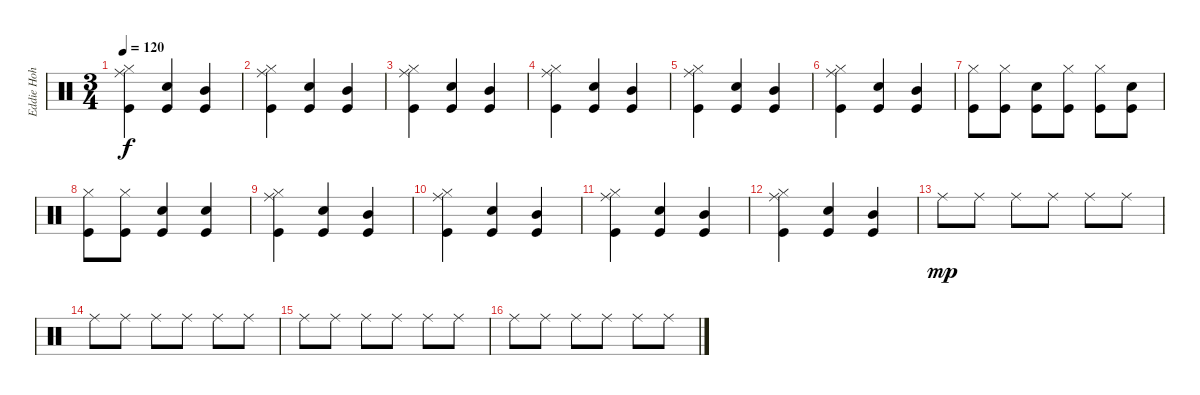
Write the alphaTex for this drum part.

\track ("Eddie Hoh" "Eddie Hoh") {instrument percussion}
\staff {score}
\articulation defaults
\ts (3 4)
\tempo 120
\clef neutral
\ks c
("Ride (middle)" "Hi-Hat (closed)" "Kick (hit)").4{dy f} ("Snare (hit) 2" "Kick (hit)").4 ("Mid Tom (hit)" "Kick (hit)").4 |
("Ride (middle)" "Hi-Hat (closed)" "Kick (hit)").4 ("Snare (hit) 2" "Kick (hit)").4 ("Mid Tom (hit)" "Kick (hit)").4 |
("Ride (middle)" "Hi-Hat (closed)" "Kick (hit)").4 ("Snare (hit) 2" "Kick (hit)").4 ("Mid Tom (hit)" "Kick (hit)").4 |
("Ride (middle)" "Hi-Hat (closed)" "Kick (hit)").4 ("Snare (hit) 2" "Kick (hit)").4 ("Mid Tom (hit)" "Kick (hit)").4 |
("Ride (middle)" "Hi-Hat (closed)" "Kick (hit)").4 ("Snare (hit) 2" "Kick (hit)").4 ("Mid Tom (hit)" "Kick (hit)").4 |
("Ride (middle)" "Hi-Hat (closed)" "Kick (hit)").4 ("Snare (hit) 2" "Kick (hit)").4 ("Mid Tom (hit)" "Kick (hit)").4 |
("Hi-Hat (closed)" "Kick (hit)").8 ("Hi-Hat (closed)" "Kick (hit)").8 ("Snare (hit) 2" "Kick (hit)").8 ("Hi-Hat (closed)" "Kick (hit)").8 ("Hi-Hat (closed)" "Kick (hit)").8 ("Snare (hit) 2" "Kick (hit)").8 |
("Hi-Hat (closed)" "Kick (hit)").8 ("Hi-Hat (closed)" "Kick (hit)").8 ("Snare (hit) 2" "Kick (hit)").4 ("Snare (hit) 2" "Kick (hit)").4 |
("Ride (middle)" "Hi-Hat (closed)" "Kick (hit)").4 ("Snare (hit) 2" "Kick (hit)").4 ("Mid Tom (hit)" "Kick (hit)").4 |
("Ride (middle)" "Hi-Hat (closed)" "Kick (hit)").4 ("Snare (hit) 2" "Kick (hit)").4 ("Mid Tom (hit)" "Kick (hit)").4 |
("Ride (middle)" "Hi-Hat (closed)" "Kick (hit)").4 ("Snare (hit) 2" "Kick (hit)").4 ("Mid Tom (hit)" "Kick (hit)").4 |
("Ride (middle)" "Hi-Hat (closed)" "Kick (hit)").4 ("Snare (hit) 2" "Kick (hit)").4 ("Mid Tom (hit)" "Kick (hit)").4 |
"Ride (middle)".8{dy mp} "Ride (middle)".8 "Ride (middle)".8 "Ride (middle)".8 "Ride (middle)".8 "Ride (middle)".8 |
"Ride (middle)".8 "Ride (middle)".8 "Ride (middle)".8 "Ride (middle)".8 "Ride (middle)".8 "Ride (middle)".8 |
"Ride (middle)".8 "Ride (middle)".8 "Ride (middle)".8 "Ride (middle)".8 "Ride (middle)".8 "Ride (middle)".8 |
"Ride (middle)".8 "Ride (middle)".8 "Ride (middle)".8 "Ride (middle)".8 "Ride (middle)".8 "Ride (middle)".8
